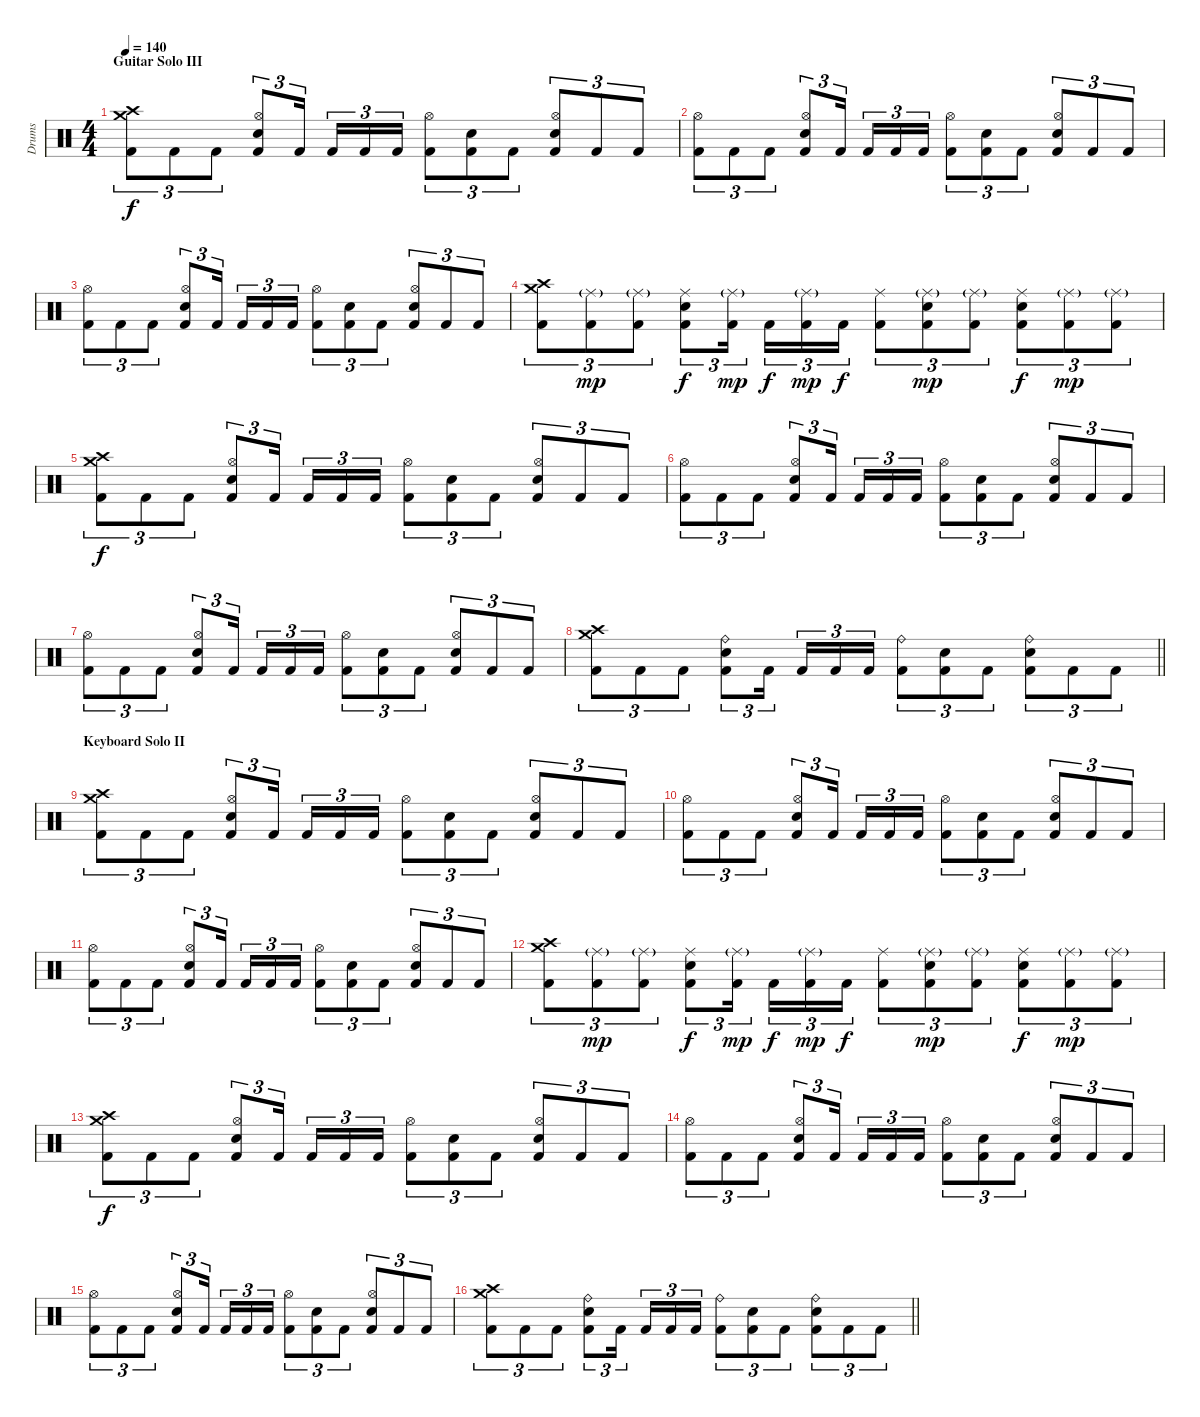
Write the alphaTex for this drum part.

\track ("Drums" "Drums") {instrument percussion}
\staff {score}
\articulation defaults
\ts (4 4)
\section ("" "Guitar Solo III")
\tempo 140
\clef neutral
\ks c
("Crash medium (hit)" "Crash high (hit)" "Kick (hit) 2").8{tu (3 2) dy f} "Kick (hit) 2".8{tu (3 2)} "Kick (hit) 2".8{tu (3 2)} ("Hi-Hat (open)" "Electric Snare (hit)" "Kick (hit) 2").8{tu (3 2)} "Kick (hit) 2".16{tu (3 2) beam splitsecondary} "Kick (hit) 2".16{tu (3 2)} "Kick (hit) 2".16{tu (3 2)} "Kick (hit) 2".16{tu (3 2)} ("Hi-Hat (open)" "Kick (hit) 2").8{tu (3 2)} ("Electric Snare (hit)" "Kick (hit) 2").8{tu (3 2)} "Kick (hit) 2".8{tu (3 2)} ("Hi-Hat (open)" "Electric Snare (hit)" "Kick (hit) 2").8{tu (3 2)} "Kick (hit) 2".8{tu (3 2)} "Kick (hit) 2".8{tu (3 2)} |
("Hi-Hat (open)" "Kick (hit) 2").8{tu (3 2)} "Kick (hit) 2".8{tu (3 2)} "Kick (hit) 2".8{tu (3 2)} ("Hi-Hat (open)" "Electric Snare (hit)" "Kick (hit) 2").8{tu (3 2)} "Kick (hit) 2".16{tu (3 2) beam splitsecondary} "Kick (hit) 2".16{tu (3 2)} "Kick (hit) 2".16{tu (3 2)} "Kick (hit) 2".16{tu (3 2)} ("Hi-Hat (open)" "Kick (hit) 2").8{tu (3 2)} ("Electric Snare (hit)" "Kick (hit) 2").8{tu (3 2)} "Kick (hit) 2".8{tu (3 2)} ("Hi-Hat (open)" "Electric Snare (hit)" "Kick (hit) 2").8{tu (3 2)} "Kick (hit) 2".8{tu (3 2)} "Kick (hit) 2".8{tu (3 2)} |
("Hi-Hat (open)" "Kick (hit) 2").8{tu (3 2)} "Kick (hit) 2".8{tu (3 2)} "Kick (hit) 2".8{tu (3 2)} ("Hi-Hat (open)" "Electric Snare (hit)" "Kick (hit) 2").8{tu (3 2)} "Kick (hit) 2".16{tu (3 2) beam splitsecondary} "Kick (hit) 2".16{tu (3 2)} "Kick (hit) 2".16{tu (3 2)} "Kick (hit) 2".16{tu (3 2)} ("Hi-Hat (open)" "Kick (hit) 2").8{tu (3 2)} ("Electric Snare (hit)" "Kick (hit) 2").8{tu (3 2)} "Kick (hit) 2".8{tu (3 2)} ("Hi-Hat (open)" "Electric Snare (hit)" "Kick (hit) 2").8{tu (3 2)} "Kick (hit) 2".8{tu (3 2)} "Kick (hit) 2".8{tu (3 2)} |
("Crash medium (hit)" "Crash high (hit)" "Kick (hit) 2").8{tu (3 2)} ("Ride (middle)"{g} "Kick (hit) 2").8{tu (3 2) dy mp} ("Ride (middle)"{g} "Kick (hit) 2").8{tu (3 2)} ("Ride (middle)" "Electric Snare (hit)" "Kick (hit) 2").8{tu (3 2) dy f} ("Ride (middle)"{g} "Kick (hit) 2").16{tu (3 2) dy mp beam splitsecondary} "Kick (hit) 2".16{tu (3 2) dy f} ("Ride (middle)"{g} "Kick (hit) 2").16{tu (3 2) dy mp} "Kick (hit) 2".16{tu (3 2) dy f} ("Ride (middle)" "Kick (hit) 2").8{tu (3 2)} ("Ride (middle)"{g} "Electric Snare (hit)" "Kick (hit) 2").8{tu (3 2) dy mp} ("Ride (middle)"{g} "Kick (hit) 2").8{tu (3 2)} ("Ride (middle)" "Electric Snare (hit)" "Kick (hit) 2").8{tu (3 2) dy f} ("Ride (middle)"{g} "Kick (hit) 2").8{tu (3 2) dy mp} ("Ride (middle)"{g} "Kick (hit) 2").8{tu (3 2)} |
("Crash medium (hit)" "Crash high (hit)" "Kick (hit) 2").8{tu (3 2) dy f} "Kick (hit) 2".8{tu (3 2)} "Kick (hit) 2".8{tu (3 2)} ("Hi-Hat (open)" "Electric Snare (hit)" "Kick (hit) 2").8{tu (3 2)} "Kick (hit) 2".16{tu (3 2) beam splitsecondary} "Kick (hit) 2".16{tu (3 2)} "Kick (hit) 2".16{tu (3 2)} "Kick (hit) 2".16{tu (3 2)} ("Hi-Hat (open)" "Kick (hit) 2").8{tu (3 2)} ("Electric Snare (hit)" "Kick (hit) 2").8{tu (3 2)} "Kick (hit) 2".8{tu (3 2)} ("Hi-Hat (open)" "Electric Snare (hit)" "Kick (hit) 2").8{tu (3 2)} "Kick (hit) 2".8{tu (3 2)} "Kick (hit) 2".8{tu (3 2)} |
("Hi-Hat (open)" "Kick (hit) 2").8{tu (3 2)} "Kick (hit) 2".8{tu (3 2)} "Kick (hit) 2".8{tu (3 2)} ("Hi-Hat (open)" "Electric Snare (hit)" "Kick (hit) 2").8{tu (3 2)} "Kick (hit) 2".16{tu (3 2) beam splitsecondary} "Kick (hit) 2".16{tu (3 2)} "Kick (hit) 2".16{tu (3 2)} "Kick (hit) 2".16{tu (3 2)} ("Hi-Hat (open)" "Kick (hit) 2").8{tu (3 2)} ("Electric Snare (hit)" "Kick (hit) 2").8{tu (3 2)} "Kick (hit) 2".8{tu (3 2)} ("Hi-Hat (open)" "Electric Snare (hit)" "Kick (hit) 2").8{tu (3 2)} "Kick (hit) 2".8{tu (3 2)} "Kick (hit) 2".8{tu (3 2)} |
("Hi-Hat (open)" "Kick (hit) 2").8{tu (3 2)} "Kick (hit) 2".8{tu (3 2)} "Kick (hit) 2".8{tu (3 2)} ("Hi-Hat (open)" "Electric Snare (hit)" "Kick (hit) 2").8{tu (3 2)} "Kick (hit) 2".16{tu (3 2) beam splitsecondary} "Kick (hit) 2".16{tu (3 2)} "Kick (hit) 2".16{tu (3 2)} "Kick (hit) 2".16{tu (3 2)} ("Hi-Hat (open)" "Kick (hit) 2").8{tu (3 2)} ("Electric Snare (hit)" "Kick (hit) 2").8{tu (3 2)} "Kick (hit) 2".8{tu (3 2)} ("Hi-Hat (open)" "Electric Snare (hit)" "Kick (hit) 2").8{tu (3 2)} "Kick (hit) 2".8{tu (3 2)} "Kick (hit) 2".8{tu (3 2)} |
\barLineRight lightlight
("Crash medium (hit)" "Crash high (hit)" "Kick (hit) 2").8{tu (3 2)} "Kick (hit) 2".8{tu (3 2)} "Kick (hit) 2".8{tu (3 2)} ("Ride (bell)" "Electric Snare (hit)" "Kick (hit) 2").8{tu (3 2)} "Kick (hit) 2".16{tu (3 2) beam splitsecondary} "Kick (hit) 2".16{tu (3 2)} "Kick (hit) 2".16{tu (3 2)} "Kick (hit) 2".16{tu (3 2)} ("Ride (bell)" "Kick (hit) 2").8{tu (3 2)} ("Electric Snare (hit)" "Kick (hit) 2").8{tu (3 2)} "Kick (hit) 2".8{tu (3 2)} ("Ride (bell)" "Electric Snare (hit)" "Kick (hit) 2").8{tu (3 2)} "Kick (hit) 2".8{tu (3 2)} "Kick (hit) 2".8{tu (3 2)} |
\section ("" "Keyboard Solo II")
("Crash medium (hit)" "Crash high (hit)" "Kick (hit) 2").8{tu (3 2)} "Kick (hit) 2".8{tu (3 2)} "Kick (hit) 2".8{tu (3 2)} ("Hi-Hat (open)" "Electric Snare (hit)" "Kick (hit) 2").8{tu (3 2)} "Kick (hit) 2".16{tu (3 2) beam splitsecondary} "Kick (hit) 2".16{tu (3 2)} "Kick (hit) 2".16{tu (3 2)} "Kick (hit) 2".16{tu (3 2)} ("Hi-Hat (open)" "Kick (hit) 2").8{tu (3 2)} ("Electric Snare (hit)" "Kick (hit) 2").8{tu (3 2)} "Kick (hit) 2".8{tu (3 2)} ("Hi-Hat (open)" "Electric Snare (hit)" "Kick (hit) 2").8{tu (3 2)} "Kick (hit) 2".8{tu (3 2)} "Kick (hit) 2".8{tu (3 2)} |
("Hi-Hat (open)" "Kick (hit) 2").8{tu (3 2)} "Kick (hit) 2".8{tu (3 2)} "Kick (hit) 2".8{tu (3 2)} ("Hi-Hat (open)" "Electric Snare (hit)" "Kick (hit) 2").8{tu (3 2)} "Kick (hit) 2".16{tu (3 2) beam splitsecondary} "Kick (hit) 2".16{tu (3 2)} "Kick (hit) 2".16{tu (3 2)} "Kick (hit) 2".16{tu (3 2)} ("Hi-Hat (open)" "Kick (hit) 2").8{tu (3 2)} ("Electric Snare (hit)" "Kick (hit) 2").8{tu (3 2)} "Kick (hit) 2".8{tu (3 2)} ("Hi-Hat (open)" "Electric Snare (hit)" "Kick (hit) 2").8{tu (3 2)} "Kick (hit) 2".8{tu (3 2)} "Kick (hit) 2".8{tu (3 2)} |
("Hi-Hat (open)" "Kick (hit) 2").8{tu (3 2)} "Kick (hit) 2".8{tu (3 2)} "Kick (hit) 2".8{tu (3 2)} ("Hi-Hat (open)" "Electric Snare (hit)" "Kick (hit) 2").8{tu (3 2)} "Kick (hit) 2".16{tu (3 2) beam splitsecondary} "Kick (hit) 2".16{tu (3 2)} "Kick (hit) 2".16{tu (3 2)} "Kick (hit) 2".16{tu (3 2)} ("Hi-Hat (open)" "Kick (hit) 2").8{tu (3 2)} ("Electric Snare (hit)" "Kick (hit) 2").8{tu (3 2)} "Kick (hit) 2".8{tu (3 2)} ("Hi-Hat (open)" "Electric Snare (hit)" "Kick (hit) 2").8{tu (3 2)} "Kick (hit) 2".8{tu (3 2)} "Kick (hit) 2".8{tu (3 2)} |
("Crash medium (hit)" "Crash high (hit)" "Kick (hit) 2").8{tu (3 2)} ("Ride (middle)"{g} "Kick (hit) 2").8{tu (3 2) dy mp} ("Ride (middle)"{g} "Kick (hit) 2").8{tu (3 2)} ("Ride (middle)" "Electric Snare (hit)" "Kick (hit) 2").8{tu (3 2) dy f} ("Ride (middle)"{g} "Kick (hit) 2").16{tu (3 2) dy mp beam splitsecondary} "Kick (hit) 2".16{tu (3 2) dy f} ("Ride (middle)"{g} "Kick (hit) 2").16{tu (3 2) dy mp} "Kick (hit) 2".16{tu (3 2) dy f} ("Ride (middle)" "Kick (hit) 2").8{tu (3 2)} ("Ride (middle)"{g} "Electric Snare (hit)" "Kick (hit) 2").8{tu (3 2) dy mp} ("Ride (middle)"{g} "Kick (hit) 2").8{tu (3 2)} ("Ride (middle)" "Electric Snare (hit)" "Kick (hit) 2").8{tu (3 2) dy f} ("Ride (middle)"{g} "Kick (hit) 2").8{tu (3 2) dy mp} ("Ride (middle)"{g} "Kick (hit) 2").8{tu (3 2)} |
("Crash medium (hit)" "Crash high (hit)" "Kick (hit) 2").8{tu (3 2) dy f} "Kick (hit) 2".8{tu (3 2)} "Kick (hit) 2".8{tu (3 2)} ("Hi-Hat (open)" "Electric Snare (hit)" "Kick (hit) 2").8{tu (3 2)} "Kick (hit) 2".16{tu (3 2) beam splitsecondary} "Kick (hit) 2".16{tu (3 2)} "Kick (hit) 2".16{tu (3 2)} "Kick (hit) 2".16{tu (3 2)} ("Hi-Hat (open)" "Kick (hit) 2").8{tu (3 2)} ("Electric Snare (hit)" "Kick (hit) 2").8{tu (3 2)} "Kick (hit) 2".8{tu (3 2)} ("Hi-Hat (open)" "Electric Snare (hit)" "Kick (hit) 2").8{tu (3 2)} "Kick (hit) 2".8{tu (3 2)} "Kick (hit) 2".8{tu (3 2)} |
("Hi-Hat (open)" "Kick (hit) 2").8{tu (3 2)} "Kick (hit) 2".8{tu (3 2)} "Kick (hit) 2".8{tu (3 2)} ("Hi-Hat (open)" "Electric Snare (hit)" "Kick (hit) 2").8{tu (3 2)} "Kick (hit) 2".16{tu (3 2) beam splitsecondary} "Kick (hit) 2".16{tu (3 2)} "Kick (hit) 2".16{tu (3 2)} "Kick (hit) 2".16{tu (3 2)} ("Hi-Hat (open)" "Kick (hit) 2").8{tu (3 2)} ("Electric Snare (hit)" "Kick (hit) 2").8{tu (3 2)} "Kick (hit) 2".8{tu (3 2)} ("Hi-Hat (open)" "Electric Snare (hit)" "Kick (hit) 2").8{tu (3 2)} "Kick (hit) 2".8{tu (3 2)} "Kick (hit) 2".8{tu (3 2)} |
("Hi-Hat (open)" "Kick (hit) 2").8{tu (3 2)} "Kick (hit) 2".8{tu (3 2)} "Kick (hit) 2".8{tu (3 2)} ("Hi-Hat (open)" "Electric Snare (hit)" "Kick (hit) 2").8{tu (3 2)} "Kick (hit) 2".16{tu (3 2) beam splitsecondary} "Kick (hit) 2".16{tu (3 2)} "Kick (hit) 2".16{tu (3 2)} "Kick (hit) 2".16{tu (3 2)} ("Hi-Hat (open)" "Kick (hit) 2").8{tu (3 2)} ("Electric Snare (hit)" "Kick (hit) 2").8{tu (3 2)} "Kick (hit) 2".8{tu (3 2)} ("Hi-Hat (open)" "Electric Snare (hit)" "Kick (hit) 2").8{tu (3 2)} "Kick (hit) 2".8{tu (3 2)} "Kick (hit) 2".8{tu (3 2)} |
\barLineRight lightlight
("Crash medium (hit)" "Crash high (hit)" "Kick (hit) 2").8{tu (3 2)} "Kick (hit) 2".8{tu (3 2)} "Kick (hit) 2".8{tu (3 2)} ("Ride (bell)" "Electric Snare (hit)" "Kick (hit) 2").8{tu (3 2)} "Kick (hit) 2".16{tu (3 2) beam splitsecondary} "Kick (hit) 2".16{tu (3 2)} "Kick (hit) 2".16{tu (3 2)} "Kick (hit) 2".16{tu (3 2)} ("Ride (bell)" "Kick (hit) 2").8{tu (3 2)} ("Electric Snare (hit)" "Kick (hit) 2").8{tu (3 2)} "Kick (hit) 2".8{tu (3 2)} ("Ride (bell)" "Electric Snare (hit)" "Kick (hit) 2").8{tu (3 2)} "Kick (hit) 2".8{tu (3 2)} "Kick (hit) 2".8{tu (3 2)}
